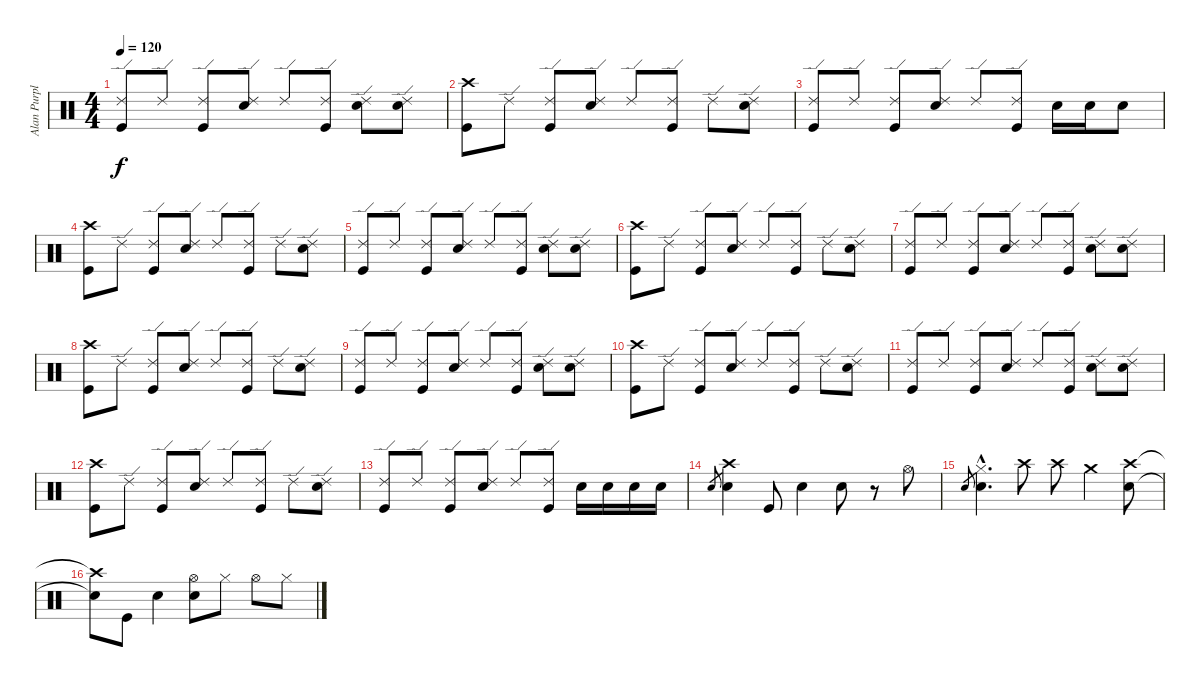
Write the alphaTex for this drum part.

\track ("Alan Purple" "Alan Purpl") {instrument percussion}
\staff {score}
\articulation defaults
\ts (4 4)
\tempo 120
\clef neutral
\ks c
("Ride (edge) 2" "Kick (hit)").8{dy f} "Ride (edge) 2".8 ("Ride (edge) 2" "Kick (hit)").8 ("Ride (edge) 2" "Snare (hit) 2").8 "Ride (edge) 2".8 ("Ride (edge) 2" "Kick (hit)").8 ("Ride (edge) 2" "Electric Snare (hit)").8 ("Ride (edge) 2" "Snare (hit) 2").8 |
("Crash high (hit)" "Kick (hit)").8 "Ride (edge) 2".8 ("Ride (edge) 2" "Kick (hit)").8 ("Ride (edge) 2" "Snare (hit) 2").8 "Ride (edge) 2".8 ("Ride (edge) 2" "Kick (hit)").8 "Ride (edge) 2".8 ("Ride (edge) 2" "Snare (hit) 2").8 |
("Ride (edge) 2" "Kick (hit)").8 "Ride (edge) 2".8 ("Ride (edge) 2" "Kick (hit)").8 ("Ride (edge) 2" "Snare (hit) 2").8 "Ride (edge) 2".8 ("Ride (edge) 2" "Kick (hit)").8 "Electric Snare (hit)".16 "Electric Snare (hit)".16 "Electric Snare (hit)".8 |
("Crash high (hit)" "Kick (hit)").8 "Ride (edge) 2".8 ("Ride (edge) 2" "Kick (hit)").8 ("Ride (edge) 2" "Snare (hit) 2").8 "Ride (edge) 2".8 ("Ride (edge) 2" "Kick (hit)").8 "Ride (edge) 2".8 ("Ride (edge) 2" "Snare (hit) 2").8 |
("Ride (edge) 2" "Kick (hit)").8 "Ride (edge) 2".8 ("Ride (edge) 2" "Kick (hit)").8 ("Ride (edge) 2" "Snare (hit) 2").8 "Ride (edge) 2".8 ("Ride (edge) 2" "Kick (hit)").8 ("Ride (edge) 2" "Electric Snare (hit)").8 ("Ride (edge) 2" "Snare (hit) 2").8 |
("Crash high (hit)" "Kick (hit)").8 "Ride (edge) 2".8 ("Ride (edge) 2" "Kick (hit)").8 ("Ride (edge) 2" "Snare (hit) 2").8 "Ride (edge) 2".8 ("Ride (edge) 2" "Kick (hit)").8 "Ride (edge) 2".8 ("Ride (edge) 2" "Snare (hit) 2").8 |
("Ride (edge) 2" "Kick (hit)").8 "Ride (edge) 2".8 ("Ride (edge) 2" "Kick (hit)").8 ("Ride (edge) 2" "Snare (hit) 2").8 "Ride (edge) 2".8 ("Ride (edge) 2" "Kick (hit)").8 ("Ride (edge) 2" "Electric Snare (hit)").8 ("Ride (edge) 2" "Snare (hit) 2").8 |
("Crash high (hit)" "Kick (hit)").8 "Ride (edge) 2".8 ("Ride (edge) 2" "Kick (hit)").8 ("Ride (edge) 2" "Snare (hit) 2").8 "Ride (edge) 2".8 ("Ride (edge) 2" "Kick (hit)").8 "Ride (edge) 2".8 ("Ride (edge) 2" "Snare (hit) 2").8 |
("Ride (edge) 2" "Kick (hit)").8 "Ride (edge) 2".8 ("Ride (edge) 2" "Kick (hit)").8 ("Ride (edge) 2" "Snare (hit) 2").8 "Ride (edge) 2".8 ("Ride (edge) 2" "Kick (hit)").8 ("Ride (edge) 2" "Electric Snare (hit)").8 ("Ride (edge) 2" "Snare (hit) 2").8 |
("Crash high (hit)" "Kick (hit)").8 "Ride (edge) 2".8 ("Ride (edge) 2" "Kick (hit)").8 ("Ride (edge) 2" "Snare (hit) 2").8 "Ride (edge) 2".8 ("Ride (edge) 2" "Kick (hit)").8 "Ride (edge) 2".8 ("Ride (edge) 2" "Snare (hit) 2").8 |
("Ride (edge) 2" "Kick (hit)").8 "Ride (edge) 2".8 ("Ride (edge) 2" "Kick (hit)").8 ("Ride (edge) 2" "Snare (hit) 2").8 "Ride (edge) 2".8 ("Ride (edge) 2" "Kick (hit)").8 ("Ride (edge) 2" "Electric Snare (hit)").8 ("Ride (edge) 2" "Snare (hit) 2").8 |
("Crash high (hit)" "Kick (hit)").8 "Ride (edge) 2".8 ("Ride (edge) 2" "Kick (hit)").8 ("Ride (edge) 2" "Snare (hit) 2").8 "Ride (edge) 2".8 ("Ride (edge) 2" "Kick (hit)").8 "Ride (edge) 2".8 ("Ride (edge) 2" "Snare (hit) 2").8 |
("Ride (edge) 2" "Kick (hit)").8 "Ride (edge) 2".8 ("Ride (edge) 2" "Kick (hit)").8 ("Ride (edge) 2" "Snare (hit) 2").8 "Ride (edge) 2".8 ("Ride (edge) 2" "Kick (hit)").8 "Electric Snare (hit)".16 "Electric Snare (hit)".16 "Electric Snare (hit)".16 "Electric Snare (hit)".16 |
"Snare (hit) 2".8{gr} ("Crash high (hit)" "Snare (hit) 2").4 "Kick (hit)".8 "Snare (hit) 2".4 "Snare (hit) 2".8 r.8 "Hi-Hat (open)".8 |
"Snare (hit) 2".8{gr} ("Hi-Hat (closed)"{hac} "Snare (hit) 2"{hac}).4{d} "Crash high (hit)".8 "Crash high (hit)".8 "Crash medium (hit)".4 ("Crash high (hit)" "Snare (hit) 2").8 |
("Crash high (hit)"{t} "Snare (hit) 2"{t}).8 "Kick (hit)".8 "Snare (hit) 2".4 ("Hi-Hat (open)" "Snare (hit) 2").8 "Hi-Hat (closed)".8 "Hi-Hat (open)".8 "Hi-Hat (closed)".8
